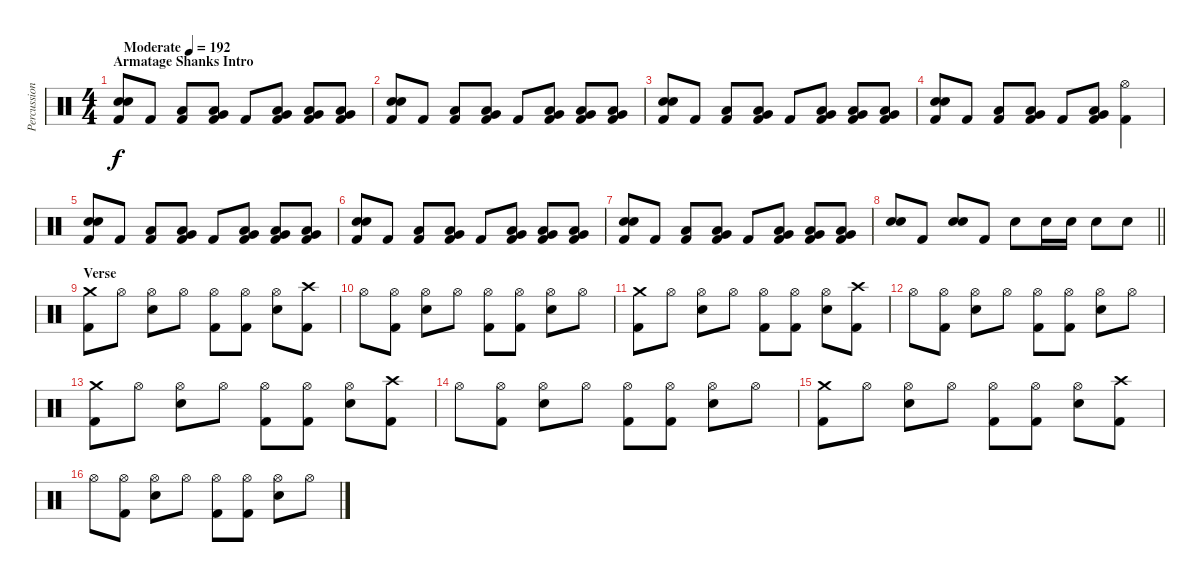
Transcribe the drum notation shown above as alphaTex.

\track ("Percussion" "Percussion") {instrument percussion}
\staff {score}
\articulation defaults
\ts (4 4)
\section ("" "Armatage Shanks Intro")
\tempo (192 "Moderate")
\clef neutral
\ks c
("Electric Snare (hit)" "Electric Snare (hit)" "Kick (hit) 2").8{dy f} "Kick (hit) 2".8 ("Low Tom (hit)" "Kick (hit) 2").8 ("Low Tom (hit)" "Very Low Tom (hit)" "Kick (hit) 2").8 "Kick (hit) 2".8 ("Very Low Tom (hit)" "Low Floor Tom (hit)" "Kick (hit) 2").8 ("Very Low Tom (hit)" "Low Floor Tom (hit)" "Kick (hit) 2").8 ("Very Low Tom (hit)" "Low Floor Tom (hit)" "Kick (hit) 2").8 |
("Electric Snare (hit)" "Electric Snare (hit)" "Kick (hit) 2").8 "Kick (hit) 2".8 ("Low Tom (hit)" "Kick (hit) 2").8 ("Low Tom (hit)" "Very Low Tom (hit)" "Kick (hit) 2").8 "Kick (hit) 2".8 ("Very Low Tom (hit)" "Low Floor Tom (hit)" "Kick (hit) 2").8 ("Very Low Tom (hit)" "Low Floor Tom (hit)" "Kick (hit) 2").8 ("Very Low Tom (hit)" "Low Floor Tom (hit)" "Kick (hit) 2").8 |
("Electric Snare (hit)" "Electric Snare (hit)" "Kick (hit) 2").8 "Kick (hit) 2".8 ("Low Tom (hit)" "Kick (hit) 2").8 ("Low Tom (hit)" "Very Low Tom (hit)" "Kick (hit) 2").8 "Kick (hit) 2".8 ("Very Low Tom (hit)" "Low Floor Tom (hit)" "Kick (hit) 2").8 ("Very Low Tom (hit)" "Low Floor Tom (hit)" "Kick (hit) 2").8 ("Very Low Tom (hit)" "Low Floor Tom (hit)" "Kick (hit) 2").8 |
("Electric Snare (hit)" "Electric Snare (hit)" "Kick (hit) 2").8 "Kick (hit) 2".8 ("Low Tom (hit)" "Kick (hit) 2").8 ("Low Tom (hit)" "Very Low Tom (hit)" "Kick (hit) 2").8 "Kick (hit) 2".8 ("Very Low Tom (hit)" "Low Floor Tom (hit)" "Kick (hit) 2").8 ("Hi-Hat (open)" "Kick (hit) 2").4 |
("Electric Snare (hit)" "Electric Snare (hit)" "Kick (hit) 2").8 "Kick (hit) 2".8 ("Low Tom (hit)" "Kick (hit) 2").8 ("Low Tom (hit)" "Very Low Tom (hit)" "Kick (hit) 2").8 "Kick (hit) 2".8 ("Very Low Tom (hit)" "Low Floor Tom (hit)" "Kick (hit) 2").8 ("Very Low Tom (hit)" "Low Floor Tom (hit)" "Kick (hit) 2").8 ("Very Low Tom (hit)" "Low Floor Tom (hit)" "Kick (hit) 2").8 |
("Electric Snare (hit)" "Electric Snare (hit)" "Kick (hit) 2").8 "Kick (hit) 2".8 ("Low Tom (hit)" "Kick (hit) 2").8 ("Low Tom (hit)" "Very Low Tom (hit)" "Kick (hit) 2").8 "Kick (hit) 2".8 ("Very Low Tom (hit)" "Low Floor Tom (hit)" "Kick (hit) 2").8 ("Very Low Tom (hit)" "Low Floor Tom (hit)" "Kick (hit) 2").8 ("Very Low Tom (hit)" "Low Floor Tom (hit)" "Kick (hit) 2").8 |
("Electric Snare (hit)" "Electric Snare (hit)" "Kick (hit) 2").8 "Kick (hit) 2".8 ("Low Tom (hit)" "Kick (hit) 2").8 ("Low Tom (hit)" "Very Low Tom (hit)" "Kick (hit) 2").8 "Kick (hit) 2".8 ("Very Low Tom (hit)" "Low Floor Tom (hit)" "Kick (hit) 2").8 ("Very Low Tom (hit)" "Low Floor Tom (hit)" "Kick (hit) 2").8 ("Very Low Tom (hit)" "Low Floor Tom (hit)" "Kick (hit) 2").8 |
\barLineRight lightlight
("Electric Snare (hit)" "Electric Snare (hit)").8 "Kick (hit) 2".8 ("Electric Snare (hit)" "Electric Snare (hit)").8 "Kick (hit) 2".8 "Electric Snare (hit)".8 "Electric Snare (hit)".16 "Electric Snare (hit)".16 "Electric Snare (hit)".8 "Electric Snare (hit)".8 |
\section ("" "Verse")
("Crash medium (hit)" "Kick (hit) 2").8 "Hi-Hat (open)".8 ("Hi-Hat (open)" "Electric Snare (hit)").8 "Hi-Hat (open)".8 ("Hi-Hat (open)" "Kick (hit) 2").8 ("Hi-Hat (open)" "Kick (hit) 2").8 ("Hi-Hat (open)" "Electric Snare (hit)").8 ("Crash high (hit)" "Kick (hit) 2").8 |
"Hi-Hat (open)".8 ("Hi-Hat (open)" "Kick (hit) 2").8 ("Hi-Hat (open)" "Electric Snare (hit)").8 "Hi-Hat (open)".8 ("Hi-Hat (open)" "Kick (hit) 2").8 ("Hi-Hat (open)" "Kick (hit) 2").8 ("Hi-Hat (open)" "Electric Snare (hit)").8 "Hi-Hat (open)".8 |
("Crash medium (hit)" "Kick (hit) 2").8 "Hi-Hat (open)".8 ("Hi-Hat (open)" "Electric Snare (hit)").8 "Hi-Hat (open)".8 ("Hi-Hat (open)" "Kick (hit) 2").8 ("Hi-Hat (open)" "Kick (hit) 2").8 ("Hi-Hat (open)" "Electric Snare (hit)").8 ("Crash high (hit)" "Kick (hit) 2").8 |
"Hi-Hat (open)".8 ("Hi-Hat (open)" "Kick (hit) 2").8 ("Hi-Hat (open)" "Electric Snare (hit)").8 "Hi-Hat (open)".8 ("Hi-Hat (open)" "Kick (hit) 2").8 ("Hi-Hat (open)" "Kick (hit) 2").8 ("Hi-Hat (open)" "Electric Snare (hit)").8 "Hi-Hat (open)".8 |
("Crash medium (hit)" "Kick (hit) 2").8 "Hi-Hat (open)".8 ("Hi-Hat (open)" "Electric Snare (hit)").8 "Hi-Hat (open)".8 ("Hi-Hat (open)" "Kick (hit) 2").8 ("Hi-Hat (open)" "Kick (hit) 2").8 ("Hi-Hat (open)" "Electric Snare (hit)").8 ("Crash high (hit)" "Kick (hit) 2").8 |
"Hi-Hat (open)".8 ("Hi-Hat (open)" "Kick (hit) 2").8 ("Hi-Hat (open)" "Electric Snare (hit)").8 "Hi-Hat (open)".8 ("Hi-Hat (open)" "Kick (hit) 2").8 ("Hi-Hat (open)" "Kick (hit) 2").8 ("Hi-Hat (open)" "Electric Snare (hit)").8 "Hi-Hat (open)".8 |
("Crash medium (hit)" "Kick (hit) 2").8 "Hi-Hat (open)".8 ("Hi-Hat (open)" "Electric Snare (hit)").8 "Hi-Hat (open)".8 ("Hi-Hat (open)" "Kick (hit) 2").8 ("Hi-Hat (open)" "Kick (hit) 2").8 ("Hi-Hat (open)" "Electric Snare (hit)").8 ("Crash high (hit)" "Kick (hit) 2").8 |
"Hi-Hat (open)".8 ("Hi-Hat (open)" "Kick (hit) 2").8 ("Hi-Hat (open)" "Electric Snare (hit)").8 "Hi-Hat (open)".8 ("Hi-Hat (open)" "Kick (hit) 2").8 ("Hi-Hat (open)" "Kick (hit) 2").8 ("Hi-Hat (open)" "Electric Snare (hit)").8 "Hi-Hat (open)".8
